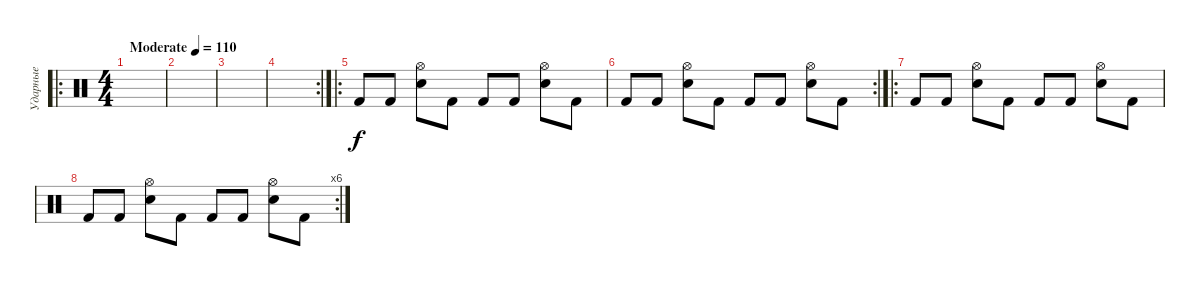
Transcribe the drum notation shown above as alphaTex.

\track ("Ударные" "Ударные") {instrument percussion}
\staff {score}
\articulation defaults
\ro
\ts (4 4)
\tempo (110 "Moderate")
\clef neutral
\ks c
|
|
|
\rc 2
|
\ro "Kick (hit) 2".8 "Kick (hit) 2".8
("Hi-Hat (open)" "Electric Snare (hit)").8 "Kick (hit) 2".8 "Kick (hit) 2".8 "Kick (hit) 2".8 ("Hi-Hat (open)" "Electric Snare (hit)").8 "Kick (hit) 2".8 |
\rc 2 "Kick (hit) 2".8 "Kick (hit) 2".8
("Hi-Hat (open)" "Electric Snare (hit)").8 "Kick (hit) 2".8 "Kick (hit) 2".8 "Kick (hit) 2".8 ("Hi-Hat (open)" "Electric Snare (hit)").8 "Kick (hit) 2".8 |
\ro "Kick (hit) 2".8 "Kick (hit) 2".8
("Hi-Hat (open)" "Electric Snare (hit)").8 "Kick (hit) 2".8 "Kick (hit) 2".8 "Kick (hit) 2".8 ("Hi-Hat (open)" "Electric Snare (hit)").8 "Kick (hit) 2".8 |
\rc 6 "Kick (hit) 2".8 "Kick (hit) 2".8
("Hi-Hat (open)" "Electric Snare (hit)").8 "Kick (hit) 2".8 "Kick (hit) 2".8 "Kick (hit) 2".8 ("Hi-Hat (open)" "Electric Snare (hit)").8 "Kick (hit) 2".8
